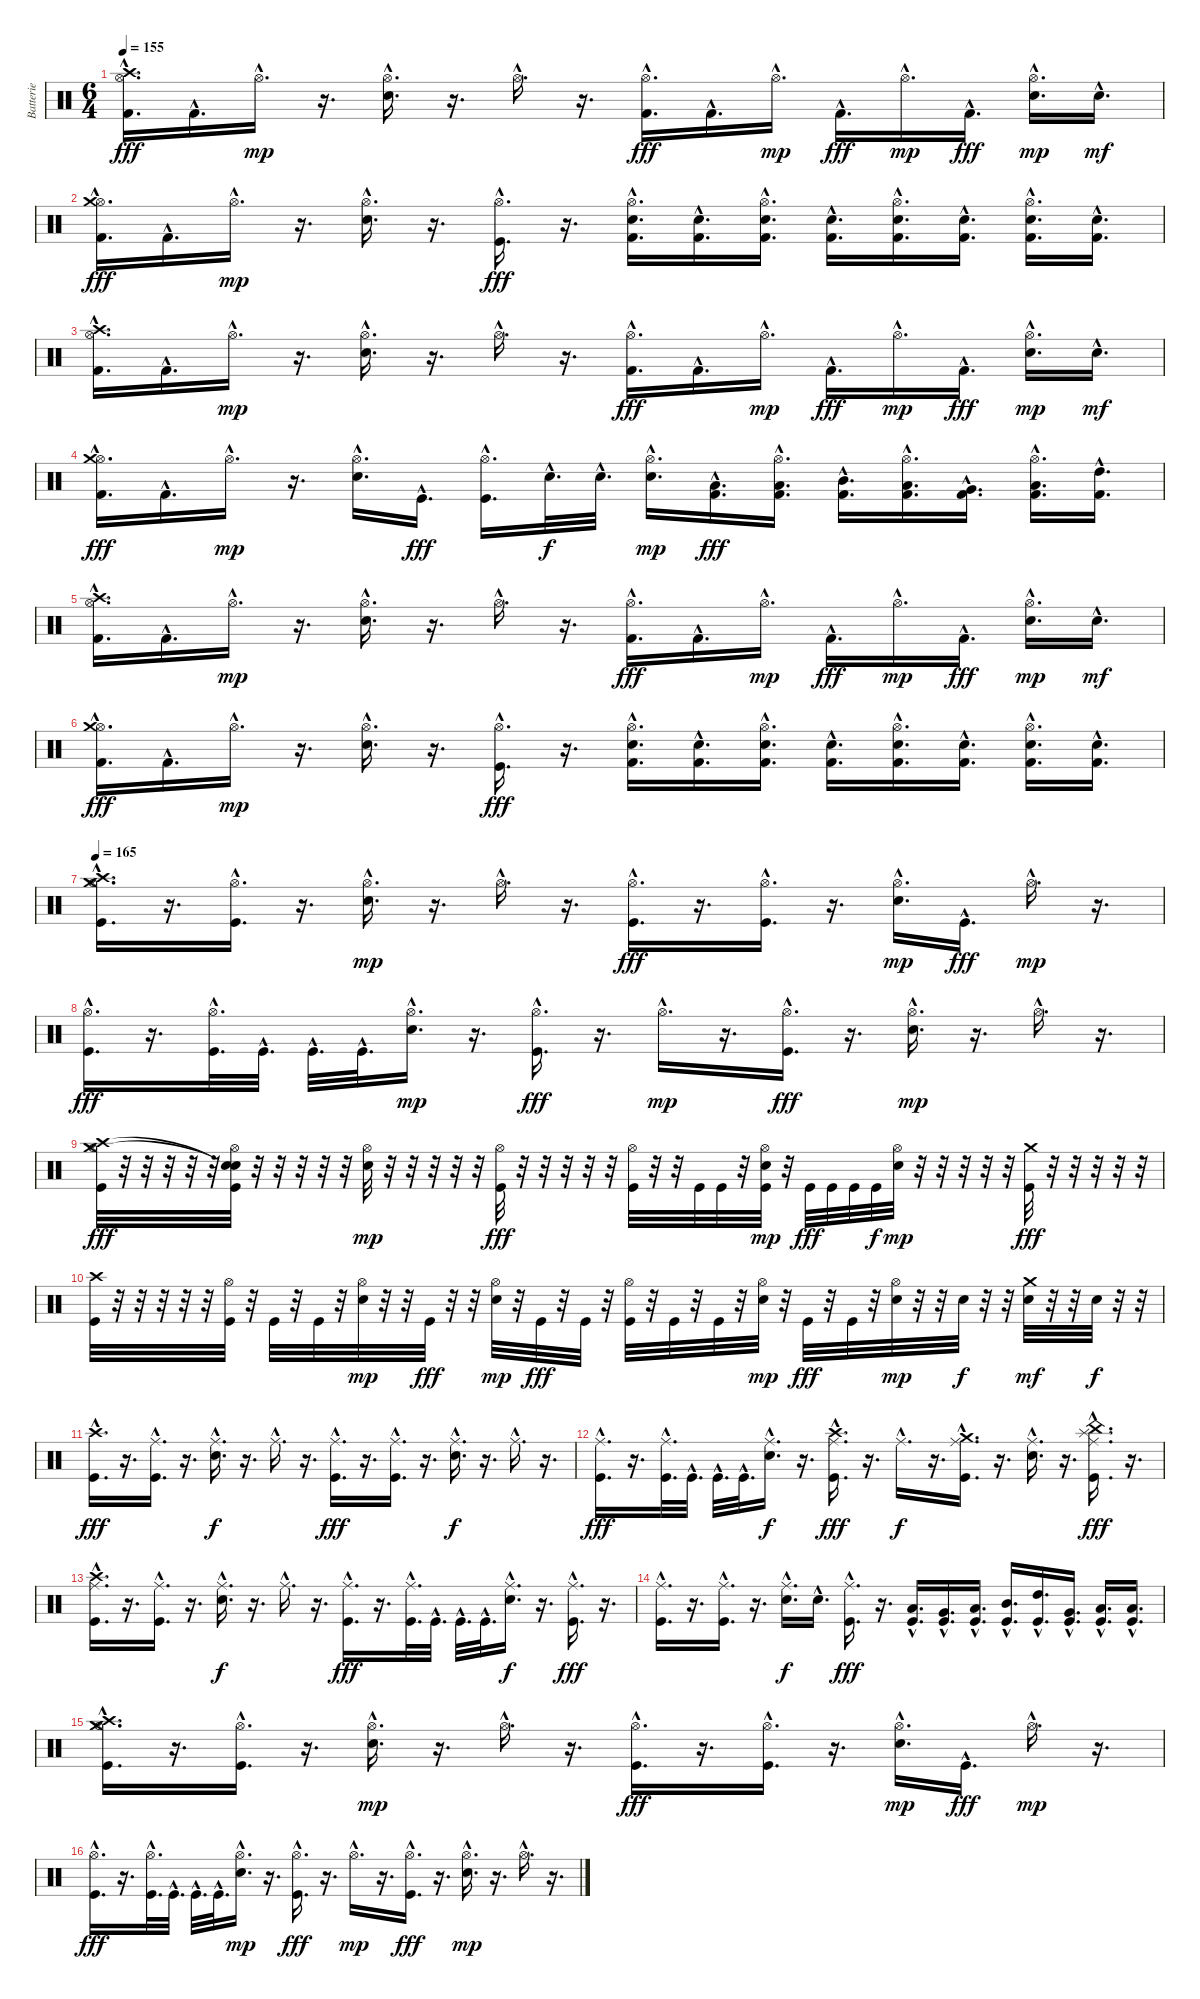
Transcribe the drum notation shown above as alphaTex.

\track ("Batterie" "Batterie") {instrument percussion}
\staff {score}
\articulation defaults
\ts (6 4)
\tempo 155
\clef neutral
\ks c
("Hi-Hat (open)"{hac} "Crash high (hit)"{hac} "Kick (hit) 2"{hac}).16{d dy fff} "Kick (hit) 2"{hac}.16{d} "Hi-Hat (open)"{hac}.16{d dy mp} r.16{d} ("Hi-Hat (open)"{hac} "Electric Snare (hit)"{hac}).16{d} r.16{d} "Hi-Hat (open)"{hac}.16{d} r.16{d} ("Hi-Hat (open)"{hac} "Kick (hit) 2"{hac}).16{d dy fff} "Kick (hit) 2"{hac}.16{d} "Hi-Hat (open)"{hac}.16{d dy mp} "Kick (hit) 2"{hac}.16{d dy fff} "Hi-Hat (open)"{hac}.16{d dy mp} "Kick (hit) 2"{hac}.16{d dy fff} ("Hi-Hat (open)"{hac} "Electric Snare (hit)"{hac}).16{d dy mp} "Electric Snare (hit)"{hac}.16{d dy mf} |
("Hi-Hat (open)"{hac} "Crash medium (hit)"{hac} "Kick (hit) 2"{hac}).16{d dy fff} "Kick (hit) 2"{hac}.16{d} "Hi-Hat (open)"{hac}.16{d dy mp} r.16{d} ("Hi-Hat (open)"{hac} "Electric Snare (hit)"{hac}).16{d} r.16{d} ("Hi-Hat (open)"{hac} "Kick (hit)"{hac}).16{d dy fff} r.16{d} ("Hi-Hat (open)"{hac} "Electric Snare (hit)"{hac} "Kick (hit) 2"{hac}).16{d} ("Electric Snare (hit)"{hac} "Kick (hit) 2"{hac}).16{d} ("Hi-Hat (open)"{hac} "Electric Snare (hit)"{hac} "Kick (hit) 2"{hac}).16{d} ("Electric Snare (hit)"{hac} "Kick (hit) 2"{hac}).16{d} ("Hi-Hat (open)"{hac} "Electric Snare (hit)"{hac} "Kick (hit) 2"{hac}).16{d} ("Electric Snare (hit)"{hac} "Kick (hit) 2"{hac}).16{d} ("Hi-Hat (open)"{hac} "Electric Snare (hit)"{hac} "Kick (hit) 2"{hac}).16{d} ("Electric Snare (hit)"{hac} "Kick (hit) 2"{hac}).16{d} |
("Hi-Hat (open)"{hac} "Crash high (hit)"{hac} "Kick (hit) 2"{hac}).16{d} "Kick (hit) 2"{hac}.16{d} "Hi-Hat (open)"{hac}.16{d dy mp} r.16{d} ("Hi-Hat (open)"{hac} "Electric Snare (hit)"{hac}).16{d} r.16{d} "Hi-Hat (open)"{hac}.16{d} r.16{d} ("Hi-Hat (open)"{hac} "Kick (hit) 2"{hac}).16{d dy fff} "Kick (hit) 2"{hac}.16{d} "Hi-Hat (open)"{hac}.16{d dy mp} "Kick (hit) 2"{hac}.16{d dy fff} "Hi-Hat (open)"{hac}.16{d dy mp} "Kick (hit) 2"{hac}.16{d dy fff} ("Hi-Hat (open)"{hac} "Electric Snare (hit)"{hac}).16{d dy mp} "Electric Snare (hit)"{hac}.16{d dy mf} |
("Hi-Hat (open)"{hac} "Crash medium (hit)"{hac} "Kick (hit) 2"{hac}).16{d dy fff} "Kick (hit) 2"{hac}.16{d} "Hi-Hat (open)"{hac}.16{d dy mp} r.16{d} ("Hi-Hat (open)"{hac} "Electric Snare (hit)"{hac}).16{d} "Kick (hit)"{hac}.16{d dy fff} ("Hi-Hat (open)"{hac} "Kick (hit)"{hac}).16{d} "Electric Snare (hit)"{hac}.32{d dy f} "Electric Snare (hit)"{hac}.32{d} ("Hi-Hat (open)"{hac} "Electric Snare (hit)"{hac}).16{d dy mp} ("Low Floor Tom (hit)"{hac} "Kick (hit) 2"{hac}).16{d dy fff} ("Hi-Hat (open)"{hac} "Low Tom (hit)"{hac} "Kick (hit) 2"{hac}).16{d} ("Mid Tom (hit)"{hac} "Kick (hit) 2"{hac}).16{d} ("Hi-Hat (open)"{hac} "Low Tom (hit)"{hac} "Kick (hit) 2"{hac}).16{d} ("Very Low Tom (hit)"{hac} "Kick (hit) 2"{hac}).16{d} ("Hi-Hat (open)"{hac} "Low Floor Tom (hit)"{hac} "Kick (hit) 2"{hac}).16{d} ("High Tom (hit)"{hac} "Kick (hit) 2"{hac}).16{d} |
("Hi-Hat (open)"{hac} "Crash high (hit)"{hac} "Kick (hit) 2"{hac}).16{d} "Kick (hit) 2"{hac}.16{d} "Hi-Hat (open)"{hac}.16{d dy mp} r.16{d} ("Hi-Hat (open)"{hac} "Electric Snare (hit)"{hac}).16{d} r.16{d} "Hi-Hat (open)"{hac}.16{d} r.16{d} ("Hi-Hat (open)"{hac} "Kick (hit) 2"{hac}).16{d dy fff} "Kick (hit) 2"{hac}.16{d} "Hi-Hat (open)"{hac}.16{d dy mp} "Kick (hit) 2"{hac}.16{d dy fff} "Hi-Hat (open)"{hac}.16{d dy mp} "Kick (hit) 2"{hac}.16{d dy fff} ("Hi-Hat (open)"{hac} "Electric Snare (hit)"{hac}).16{d dy mp} "Electric Snare (hit)"{hac}.16{d dy mf} |
("Hi-Hat (open)"{hac} "Crash medium (hit)"{hac} "Kick (hit) 2"{hac}).16{d dy fff} "Kick (hit) 2"{hac}.16{d} "Hi-Hat (open)"{hac}.16{d dy mp} r.16{d} ("Hi-Hat (open)"{hac} "Electric Snare (hit)"{hac}).16{d} r.16{d} ("Hi-Hat (open)"{hac} "Kick (hit)"{hac}).16{d dy fff} r.16{d} ("Hi-Hat (open)"{hac} "Electric Snare (hit)"{hac} "Kick (hit) 2"{hac}).16{d} ("Electric Snare (hit)"{hac} "Kick (hit) 2"{hac}).16{d} ("Hi-Hat (open)"{hac} "Electric Snare (hit)"{hac} "Kick (hit) 2"{hac}).16{d} ("Electric Snare (hit)"{hac} "Kick (hit) 2"{hac}).16{d} ("Hi-Hat (open)"{hac} "Electric Snare (hit)"{hac} "Kick (hit) 2"{hac}).16{d} ("Electric Snare (hit)"{hac} "Kick (hit) 2"{hac}).16{d} ("Hi-Hat (open)"{hac} "Electric Snare (hit)"{hac} "Kick (hit) 2"{hac}).16{d} ("Electric Snare (hit)"{hac} "Kick (hit) 2"{hac}).16{d} |
\tempo 165
("Hi-Hat (open)"{hac} "Crash medium (hit)"{hac} "Crash high (hit)"{hac} "Kick (hit)"{hac}).16{d} r.16{d} ("Hi-Hat (open)"{hac} "Kick (hit)"{hac}).16{d} r.16{d} ("Hi-Hat (open)"{hac} "Electric Snare (hit)"{hac}).16{d dy mp} r.16{d} "Hi-Hat (open)"{hac}.16{d} r.16{d} ("Hi-Hat (open)"{hac} "Kick (hit)"{hac}).16{d dy fff} r.16{d} ("Hi-Hat (open)"{hac} "Kick (hit)"{hac}).16{d} r.16{d} ("Hi-Hat (open)"{hac} "Electric Snare (hit)"{hac}).16{d dy mp} "Kick (hit)"{hac}.16{d dy fff} "Hi-Hat (open)"{hac}.16{d dy mp} r.16{d} |
("Hi-Hat (open)"{hac} "Kick (hit)"{hac}).16{d dy fff} r.16{d} ("Hi-Hat (open)"{hac} "Kick (hit)"{hac}).32{d} "Kick (hit)"{hac}.32{d} "Kick (hit)"{hac}.32{d} "Kick (hit)"{hac}.32{d} ("Hi-Hat (open)"{hac} "Electric Snare (hit)"{hac}).16{d dy mp} r.16{d} ("Hi-Hat (open)"{hac} "Kick (hit)"{hac}).16{d dy fff} r.16{d} "Hi-Hat (open)"{hac}.16{d dy mp} r.16{d} ("Hi-Hat (open)"{hac} "Kick (hit)"{hac}).16{d dy fff} r.16{d} ("Hi-Hat (open)"{hac} "Electric Snare (hit)"{hac}).16{d dy mp} r.16{d} "Hi-Hat (open)"{hac}.16{d} r.16{d} |
("Hi-Hat (open)" "Crash high (hit)" "Crash medium (hit)" "Kick (hit)").32{dy fff} r.32 r.32 r.32 r.32 r.32 ("Hi-Hat (open)" "Snare (hit)"{t} "Snare (hit)"{t} "Kick (hit)").32 r.32 r.32 r.32 r.32 r.32 ("Hi-Hat (open)" "Electric Snare (hit)").32{dy mp} r.32 r.32 r.32 r.32 r.32 ("Hi-Hat (open)" "Kick (hit)").32{dy fff} r.32 r.32 r.32 r.32 r.32 ("Hi-Hat (open)" "Kick (hit)").32 r.32 r.32 "Kick (hit)".32 "Kick (hit)".32 r.32 ("Hi-Hat (open)" "Snare (hit) 2" "Kick (hit)").32{dy mp} r.32 "Kick (hit)".32{dy fff} "Kick (hit)".32 "Kick (hit)".32 "Kick (hit)".32{dy f} ("Hi-Hat (open)" "Electric Snare (hit)").32{dy mp} r.32 r.32 r.32 r.32 r.32 ("Crash medium (hit)" "Kick (hit)").32{dy fff} r.32 r.32 r.32 r.32 r.32 |
("Crash high (hit)" "Kick (hit)").32 r.32 r.32 r.32 r.32 r.32 ("Hi-Hat (open)" "Kick (hit)").32 r.32 "Kick (hit)".32 r.32 "Kick (hit)".32 r.32 ("Hi-Hat (open)" "Electric Snare (hit)").32{dy mp} r.32 r.32 "Kick (hit)".32{dy fff} r.32 r.32 ("Hi-Hat (open)" "Electric Snare (hit)").32{dy mp} r.32 "Kick (hit)".32{dy fff} r.32 "Kick (hit)".32 r.32 ("Hi-Hat (open)" "Kick (hit)").32 r.32 "Kick (hit)".32 r.32 "Kick (hit)".32 r.32 ("Hi-Hat (open)" "Electric Snare (hit)").32{dy mp} r.32 "Kick (hit)".32{dy fff} r.32 "Kick (hit)".32 r.32 ("Hi-Hat (open)" "Electric Snare (hit)").32{dy mp} r.32 r.32 "Electric Snare (hit)".32{dy f} r.32 r.32 ("Crash medium (hit)" "Electric Snare (hit)").32{dy mf} r.32 r.32 "Electric Snare (hit)".32{dy f} r.32 r.32 |
("Crash high (hit)"{hac} "Kick (hit)"{hac}).16{d dy fff} r.16{d} ("Ride (middle)"{hac} "Kick (hit)"{hac}).16{d} r.16{d} ("Ride (middle)"{hac} "Electric Snare (hit)"{hac}).16{d dy f} r.16{d} "Ride (middle)"{hac}.16{d} r.16{d} ("Ride (middle)"{hac} "Kick (hit)"{hac}).16{d dy fff} r.16{d} ("Ride (middle)"{hac} "Kick (hit)"{hac}).16{d} r.16{d} ("Ride (middle)"{hac} "Electric Snare (hit)"{hac}).16{d dy f} r.16{d} "Ride (middle)"{hac}.16{d} r.16{d} |
("Ride (middle)"{hac} "Kick (hit)"{hac}).16{d dy fff} r.16{d} ("Ride (middle)"{hac} "Kick (hit)"{hac}).32{d} "Kick (hit)"{hac}.32{d} "Kick (hit)"{hac}.32{d} "Kick (hit)"{hac}.32{d} ("Ride (middle)"{hac} "Electric Snare (hit)"{hac}).16{d dy f} r.16{d} ("Ride (middle)"{hac} "Crash high (hit)"{hac} "Kick (hit)"{hac}).16{d dy fff} r.16{d} "Ride (middle)"{hac}.16{d dy f} r.16{d} ("Ride (middle)"{hac} "Crash medium (hit)"{hac} "Kick (hit)"{hac}).16{d} r.16{d} ("Ride (middle)"{hac} "Electric Snare (hit)"{hac}).16{d} r.16{d} ("Ride (middle)"{hac} "Splash (hit)"{hac} "China (hit)"{hac} "Kick (hit)"{hac}).16{d dy fff} r.16{d} |
("Ride (middle)"{hac} "Crash high (hit)"{hac} "Kick (hit)"{hac}).16{d} r.16{d} ("Ride (middle)"{hac} "Kick (hit)"{hac}).16{d} r.16{d} ("Ride (middle)"{hac} "Electric Snare (hit)"{hac}).16{d dy f} r.16{d} "Ride (middle)"{hac}.16{d} r.16{d} ("Ride (middle)"{hac} "Kick (hit)"{hac}).16{d dy fff} r.16{d} ("Ride (middle)"{hac} "Kick (hit)"{hac}).32{d} "Kick (hit)"{hac}.32{d} "Kick (hit)"{hac}.32{d} "Kick (hit)"{hac}.32{d} ("Ride (middle)"{hac} "Electric Snare (hit)"{hac}).16{d dy f} r.16{d} ("Ride (middle)"{hac} "Kick (hit)"{hac}).16{d dy fff} r.16{d} |
("Ride (middle)"{hac} "Kick (hit)"{hac}).16{d} r.16{d} ("Ride (middle)"{hac} "Kick (hit)"{hac}).16{d} r.16{d} ("Ride (middle)"{hac} "Electric Snare (hit)"{hac}).16{d dy f} "Electric Snare (hit)"{hac}.16{d} ("Ride (middle)"{hac} "Kick (hit)"{hac}).16{d dy fff} r.16{d} ("Low Floor Tom (hit)"{hac} "Kick (hit)"{hac}).16{d} ("Very Low Tom (hit)"{hac} "Kick (hit)"{hac}).16{d} ("Low Tom (hit)"{hac} "Kick (hit)"{hac}).16{d} ("Mid Tom (hit)"{hac} "Kick (hit)"{hac}).16{d} ("High Tom (hit)"{hac} "Kick (hit)"{hac}).16{d} ("Very Low Tom (hit)"{hac} "Kick (hit)"{hac}).16{d} ("Low Tom (hit)"{hac} "Kick (hit)"{hac}).16{d} ("Low Floor Tom (hit)"{hac} "Kick (hit)"{hac}).16{d} |
("Hi-Hat (open)"{hac} "Crash medium (hit)"{hac} "Crash high (hit)"{hac} "Kick (hit)"{hac}).16{d} r.16{d} ("Hi-Hat (open)"{hac} "Kick (hit)"{hac}).16{d} r.16{d} ("Hi-Hat (open)"{hac} "Electric Snare (hit)"{hac}).16{d dy mp} r.16{d} "Hi-Hat (open)"{hac}.16{d} r.16{d} ("Hi-Hat (open)"{hac} "Kick (hit)"{hac}).16{d dy fff} r.16{d} ("Hi-Hat (open)"{hac} "Kick (hit)"{hac}).16{d} r.16{d} ("Hi-Hat (open)"{hac} "Electric Snare (hit)"{hac}).16{d dy mp} "Kick (hit)"{hac}.16{d dy fff} "Hi-Hat (open)"{hac}.16{d dy mp} r.16{d} |
("Hi-Hat (open)"{hac} "Kick (hit)"{hac}).16{d dy fff} r.16{d} ("Hi-Hat (open)"{hac} "Kick (hit)"{hac}).32{d} "Kick (hit)"{hac}.32{d} "Kick (hit)"{hac}.32{d} "Kick (hit)"{hac}.32{d} ("Hi-Hat (open)"{hac} "Electric Snare (hit)"{hac}).16{d dy mp} r.16{d} ("Hi-Hat (open)"{hac} "Kick (hit)"{hac}).16{d dy fff} r.16{d} "Hi-Hat (open)"{hac}.16{d dy mp} r.16{d} ("Hi-Hat (open)"{hac} "Kick (hit)"{hac}).16{d dy fff} r.16{d} ("Hi-Hat (open)"{hac} "Electric Snare (hit)"{hac}).16{d dy mp} r.16{d} "Hi-Hat (open)"{hac}.16{d} r.16{d}
